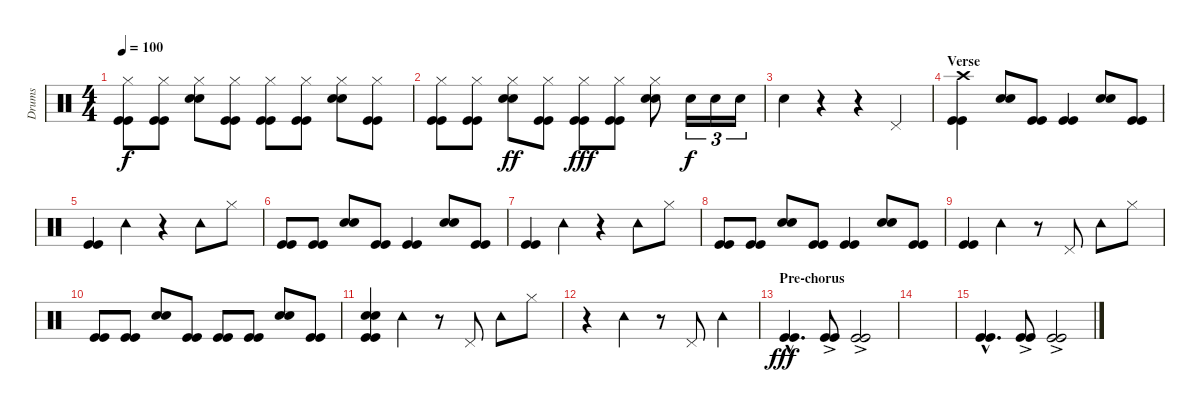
\track ("Drums" "Drums") {instrument percussion}
\staff {score}
\articulation defaults
\ts (4 4)
\tempo 100
\clef neutral
\ks c
("Hi-Hat (closed)" "Kick (hit)" "Kick (hit)").8{dy f} ("Hi-Hat (closed)" "Kick (hit)" "Kick (hit)").8 ("Hi-Hat (closed)" "Snare (hit) 2" "Snare (hit) 2").8 ("Hi-Hat (closed)" "Kick (hit)" "Kick (hit)").8 ("Hi-Hat (closed)" "Kick (hit)" "Kick (hit)").8 ("Hi-Hat (closed)" "Kick (hit)" "Kick (hit)").8 ("Hi-Hat (closed)" "Snare (hit) 2" "Snare (hit) 2").8 ("Hi-Hat (closed)" "Kick (hit)" "Kick (hit)").8 |
("Hi-Hat (closed)" "Kick (hit)" "Kick (hit)").8 ("Hi-Hat (closed)" "Kick (hit)" "Kick (hit)").8 ("Hi-Hat (closed)" "Snare (hit) 2" "Snare (hit) 2").8{dy ff} ("Hi-Hat (closed)" "Kick (hit)" "Kick (hit)").8 ("Hi-Hat (closed)" "Kick (hit)" "Kick (hit)").8{dy fff} ("Hi-Hat (closed)" "Kick (hit)" "Kick (hit)").8 ("Hi-Hat (closed)" "Snare (hit) 2" "Snare (hit) 2").8 "Snare (hit) 2".16{tu (3 2) dy f} "Snare (hit) 2".16{tu (3 2)} "Snare (hit) 2".16{tu (3 2)} |
"Snare (hit) 2".4 r.4 r.4 "Pedal Hi-Hat (hit)".4 |
\section ("" "Verse")
("Crash high (hit)" "Kick (hit)" "Kick (hit)").4 ("Snare (hit) 2" "Snare (hit) 2").8 ("Kick (hit)" "Kick (hit)").8 ("Kick (hit)" "Kick (hit)").4 ("Snare (hit) 2" "Snare (hit) 2").8 ("Kick (hit)" "Kick (hit)").8 |
("Kick (hit)" "Kick (hit)").4 "Tambourine (hit)".4 r.4 "Tambourine (hit)".8 "Hi-Hat (closed)".8 |
("Kick (hit)" "Kick (hit)").8 ("Kick (hit)" "Kick (hit)").8 ("Snare (hit) 2" "Snare (hit) 2").8 ("Kick (hit)" "Kick (hit)").8 ("Kick (hit)" "Kick (hit)").4 ("Snare (hit) 2" "Snare (hit) 2").8 ("Kick (hit)" "Kick (hit)").8 |
("Kick (hit)" "Kick (hit)").4 "Tambourine (hit)".4 r.4 "Tambourine (hit)".8 "Hi-Hat (closed)".8 |
("Kick (hit)" "Kick (hit)").8 ("Kick (hit)" "Kick (hit)").8 ("Snare (hit) 2" "Snare (hit) 2").8 ("Kick (hit)" "Kick (hit)").8 ("Kick (hit)" "Kick (hit)").4 ("Snare (hit) 2" "Snare (hit) 2").8 ("Kick (hit)" "Kick (hit)").8 |
("Kick (hit)" "Kick (hit)").4 "Tambourine (hit)".4 r.8 "Pedal Hi-Hat (hit)".8 "Tambourine (hit)".8 "Hi-Hat (closed)".8 |
("Kick (hit)" "Kick (hit)").8 ("Kick (hit)" "Kick (hit)").8 ("Snare (hit) 2" "Snare (hit) 2").8 ("Kick (hit)" "Kick (hit)").8 ("Kick (hit)" "Kick (hit)").8 ("Kick (hit)" "Kick (hit)").8 ("Snare (hit) 2" "Snare (hit) 2").8 ("Kick (hit)" "Kick (hit)").8 |
("Snare (hit) 2" "Snare (hit) 2" "Kick (hit)" "Kick (hit)").4 "Tambourine (hit)".4 r.8 "Pedal Hi-Hat (hit)".8 "Tambourine (hit)".8 "Hi-Hat (closed)".8 |
r.4 "Tambourine (hit)".4 r.8 "Pedal Hi-Hat (hit)".8 "Tambourine (hit)".4 |
\section ("" "Pre-chorus")
("Kick (hit)"{hac} "Kick (hit)"{hac}).4{d dy fff} ("Kick (hit)"{ac} "Kick (hit)").8 ("Kick (hit)"{ac} "Kick (hit)").2 |
|
("Kick (hit)"{hac} "Kick (hit)"{hac}).4{d} ("Kick (hit)"{ac} "Kick (hit)").8 ("Kick (hit)"{ac} "Kick (hit)").2
